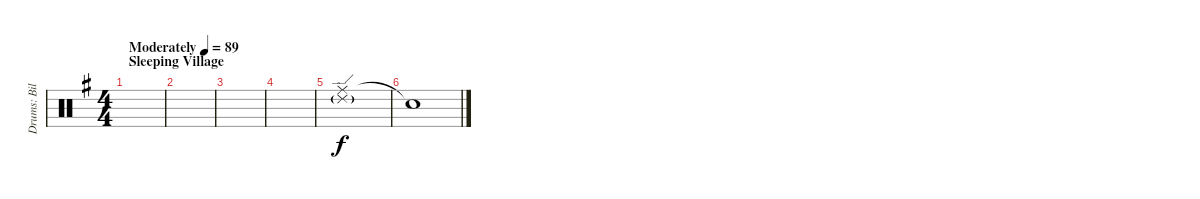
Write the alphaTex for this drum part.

\track ("Drums: Bill" "Drums: Bil") {instrument percussion}
\staff {score}
\articulation defaults
\ts (4 4)
\section ("" "Sleeping Village")
\tempo (89 "Moderately")
\clef neutral
\ks g
|
|
|
|
("Ride (middle)" "Ride (edge) 2"{g}).1 |
"Snare (hit)"{t}.1{dy f}
